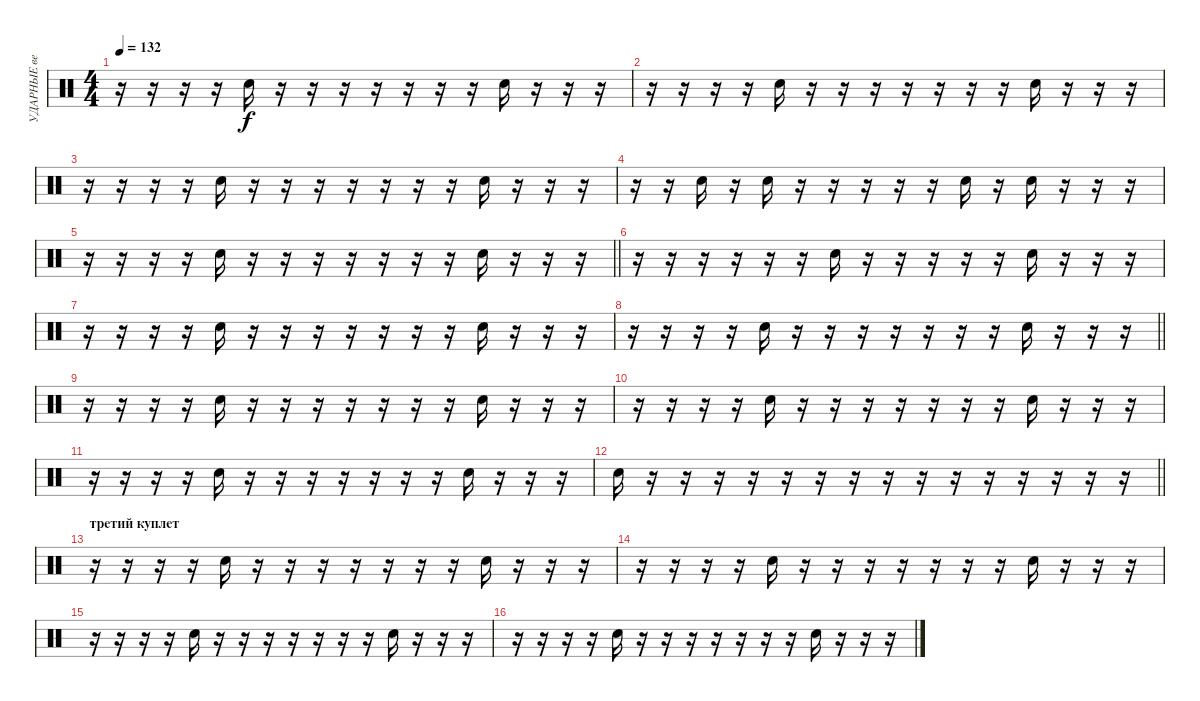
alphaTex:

\track ("УДАРНЫЕ ведущий" "УДАРНЫЕ ве") {instrument percussion}
\staff {score}
\articulation defaults
\ts (4 4)
\tempo 132
\clef neutral
\ks c
r.16{dy f} r.16 r.16 r.16 "Snare (hit) 2".16 r.16 r.16 r.16 r.16 r.16 r.16 r.16 "Snare (hit) 2".16 r.16 r.16 r.16 |
r.16 r.16 r.16 r.16 "Snare (hit) 2".16 r.16 r.16 r.16 r.16 r.16 r.16 r.16 "Snare (hit) 2".16 r.16 r.16 r.16 |
r.16 r.16 r.16 r.16 "Snare (hit) 2".16 r.16 r.16 r.16 r.16 r.16 r.16 r.16 "Snare (hit) 2".16 r.16 r.16 r.16 |
r.16 r.16 "Snare (hit) 2".16 r.16 "Snare (hit) 2".16 r.16 r.16 r.16 r.16 r.16 "Snare (hit) 2".16 r.16 "Snare (hit) 2".16 r.16 r.16 r.16 |
\barLineRight lightlight
r.16 r.16 r.16 r.16 "Snare (hit) 2".16 r.16 r.16 r.16 r.16 r.16 r.16 r.16 "Snare (hit) 2".16 r.16 r.16 r.16 |
r.16 r.16 r.16 r.16 r.16 r.16 "Snare (hit) 2".16 r.16 r.16 r.16 r.16 r.16 "Snare (hit) 2".16 r.16 r.16 r.16 |
r.16 r.16 r.16 r.16 "Snare (hit) 2".16 r.16 r.16 r.16 r.16 r.16 r.16 r.16 "Snare (hit) 2".16 r.16 r.16 r.16 |
\barLineRight lightlight
r.16 r.16 r.16 r.16 "Snare (hit) 2".16 r.16 r.16 r.16 r.16 r.16 r.16 r.16 "Snare (hit) 2".16 r.16 r.16 r.16 |
r.16 r.16 r.16 r.16 "Snare (hit) 2".16 r.16 r.16 r.16 r.16 r.16 r.16 r.16 "Snare (hit) 2".16 r.16 r.16 r.16 |
r.16 r.16 r.16 r.16 "Snare (hit) 2".16 r.16 r.16 r.16 r.16 r.16 r.16 r.16 "Snare (hit) 2".16 r.16 r.16 r.16 |
r.16 r.16 r.16 r.16 "Snare (hit) 2".16 r.16 r.16 r.16 r.16 r.16 r.16 r.16 "Snare (hit) 2".16 r.16 r.16 r.16 |
\barLineRight lightlight "Snare (hit) 2".16
r.16 r.16 r.16 r.16 r.16 r.16 r.16 r.16 r.16 r.16 r.16 r.16 r.16 r.16 r.16 |
\section ("" "третий куплет ")
r.16 r.16 r.16 r.16 "Snare (hit) 2".16 r.16 r.16 r.16 r.16 r.16 r.16 r.16 "Snare (hit) 2".16 r.16 r.16 r.16 |
r.16 r.16 r.16 r.16 "Snare (hit) 2".16 r.16 r.16 r.16 r.16 r.16 r.16 r.16 "Snare (hit) 2".16 r.16 r.16 r.16 |
r.16 r.16 r.16 r.16 "Snare (hit) 2".16 r.16 r.16 r.16 r.16 r.16 r.16 r.16 "Snare (hit) 2".16 r.16 r.16 r.16 |
r.16 r.16 r.16 r.16 "Snare (hit) 2".16 r.16 r.16 r.16 r.16 r.16 r.16 r.16 "Snare (hit) 2".16 r.16 r.16 r.16
